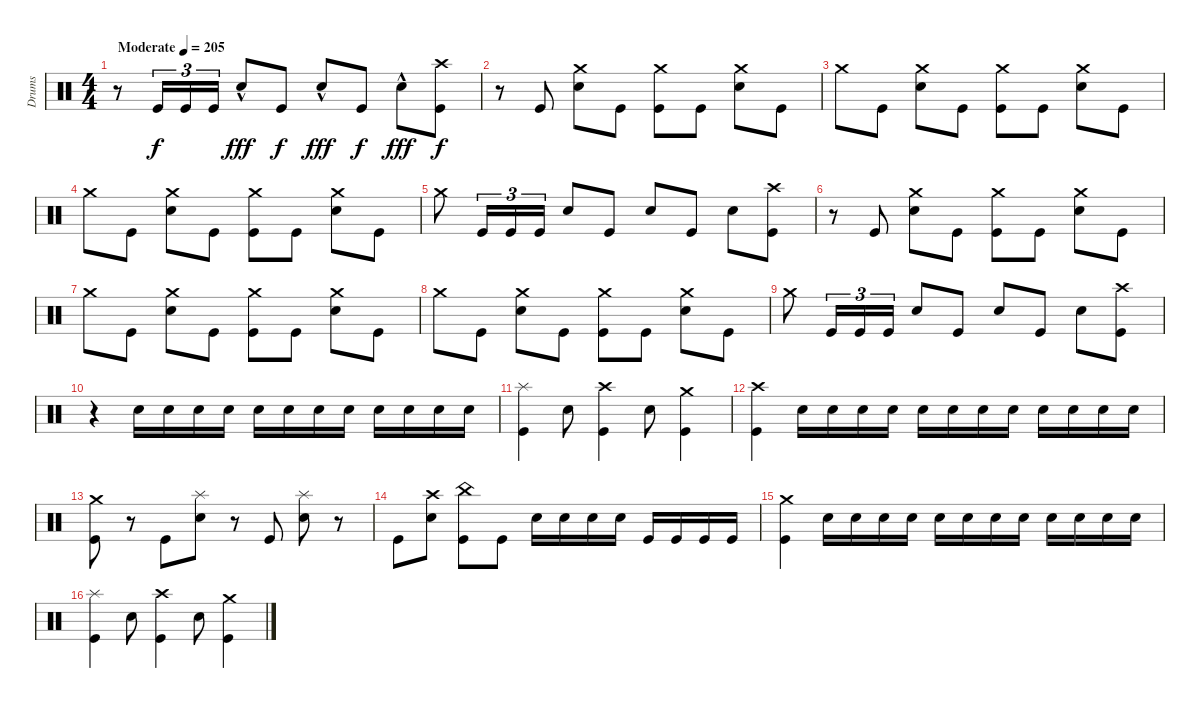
\track ("Drums" "Drums") {instrument percussion}
\staff {score}
\articulation defaults
\ts (4 4)
\tempo (205 "Moderate")
\clef neutral
\ks c
r.8{dy f} "Kick (hit)".16{tu (3 2)} "Kick (hit)".16{tu (3 2)} "Kick (hit)".16{tu (3 2)} "Electric Snare (hit)"{hac}.8{dy fff} "Kick (hit)".8{dy f} "Electric Snare (hit)"{hac}.8{dy fff} "Kick (hit)".8{dy f} "Electric Snare (hit)"{hac}.8{dy fff} ("Crash high (hit)" "Kick (hit)").8{dy f} |
r.8 "Kick (hit)".8 ("Electric Snare (hit)" "Crash medium (hit)").8 "Kick (hit)".8 ("Crash medium (hit)" "Kick (hit)").8 "Kick (hit)".8 ("Electric Snare (hit)" "Crash medium (hit)").8 "Kick (hit)".8 |
"Crash medium (hit)".8 "Kick (hit)".8 ("Electric Snare (hit)" "Crash medium (hit)").8 "Kick (hit)".8 ("Crash medium (hit)" "Kick (hit)").8 "Kick (hit)".8 ("Electric Snare (hit)" "Crash medium (hit)").8 "Kick (hit)".8 |
"Crash medium (hit)".8 "Kick (hit)".8 ("Electric Snare (hit)" "Crash medium (hit)").8 "Kick (hit)".8 ("Crash medium (hit)" "Kick (hit)").8 "Kick (hit)".8 ("Electric Snare (hit)" "Crash medium (hit)").8 "Kick (hit)".8 |
"Crash medium (hit)".8 "Kick (hit)".16{tu (3 2)} "Kick (hit)".16{tu (3 2)} "Kick (hit)".16{tu (3 2)} "Electric Snare (hit)".8 "Kick (hit)".8 "Electric Snare (hit)".8 "Kick (hit)".8 "Electric Snare (hit)".8 ("Crash high (hit)" "Kick (hit)").8 |
r.8 "Kick (hit)".8 ("Electric Snare (hit)" "Crash medium (hit)").8 "Kick (hit)".8 ("Crash medium (hit)" "Kick (hit)").8 "Kick (hit)".8 ("Electric Snare (hit)" "Crash medium (hit)").8 "Kick (hit)".8 |
"Crash medium (hit)".8 "Kick (hit)".8 ("Electric Snare (hit)" "Crash medium (hit)").8 "Kick (hit)".8 ("Crash medium (hit)" "Kick (hit)").8 "Kick (hit)".8 ("Electric Snare (hit)" "Crash medium (hit)").8 "Kick (hit)".8 |
"Crash medium (hit)".8 "Kick (hit)".8 ("Electric Snare (hit)" "Crash medium (hit)").8 "Kick (hit)".8 ("Crash medium (hit)" "Kick (hit)").8 "Kick (hit)".8 ("Electric Snare (hit)" "Crash medium (hit)").8 "Kick (hit)".8 |
"Crash medium (hit)".8 "Kick (hit)".16{tu (3 2)} "Kick (hit)".16{tu (3 2)} "Kick (hit)".16{tu (3 2)} "Electric Snare (hit)".8 "Kick (hit)".8 "Electric Snare (hit)".8 "Kick (hit)".8 "Electric Snare (hit)".8 ("Crash high (hit)" "Kick (hit)").8 |
r.4 "Electric Snare (hit)".16 "Electric Snare (hit)".16 "Electric Snare (hit)".16 "Electric Snare (hit)".16 "Electric Snare (hit)".16 "Electric Snare (hit)".16 "Electric Snare (hit)".16 "Electric Snare (hit)".16 "Electric Snare (hit)".16 "Electric Snare (hit)".16 "Electric Snare (hit)".16 "Electric Snare (hit)".16 |
("Splash (hit)" "Kick (hit)").4 "Electric Snare (hit)".8 ("Crash high (hit)" "Kick (hit)").4 "Electric Snare (hit)".8 ("Crash medium (hit)" "Kick (hit)").4 |
("Crash high (hit)" "Kick (hit)").4 "Electric Snare (hit)".16 "Electric Snare (hit)".16 "Electric Snare (hit)".16 "Electric Snare (hit)".16 "Electric Snare (hit)".16 "Electric Snare (hit)".16 "Electric Snare (hit)".16 "Electric Snare (hit)".16 "Electric Snare (hit)".16 "Electric Snare (hit)".16 "Electric Snare (hit)".16 "Electric Snare (hit)".16 |
("Crash medium (hit)" "Kick (hit)").8 r.8 "Kick (hit)".8 ("Electric Snare (hit)" "Splash (hit)").8 r.8 "Kick (hit)".8 ("Electric Snare (hit)" "Splash (hit)").8 r.8 |
"Kick (hit)".8 ("Electric Snare (hit)" "Crash high (hit)").8 ("China (hit)" "Kick (hit)").8 "Kick (hit)".8 "Electric Snare (hit)".16 "Electric Snare (hit)".16 "Electric Snare (hit)".16 "Electric Snare (hit)".16 "Kick (hit)".16 "Kick (hit)".16 "Kick (hit)".16 "Kick (hit)".16 |
("Crash medium (hit)" "Kick (hit)").4 "Electric Snare (hit)".16 "Electric Snare (hit)".16 "Electric Snare (hit)".16 "Electric Snare (hit)".16 "Electric Snare (hit)".16 "Electric Snare (hit)".16 "Electric Snare (hit)".16 "Electric Snare (hit)".16 "Electric Snare (hit)".16 "Electric Snare (hit)".16 "Electric Snare (hit)".16 "Electric Snare (hit)".16 |
("Splash (hit)" "Kick (hit)").4 "Electric Snare (hit)".8 ("Crash high (hit)" "Kick (hit)").4 "Electric Snare (hit)".8 ("Crash medium (hit)" "Kick (hit)").4
